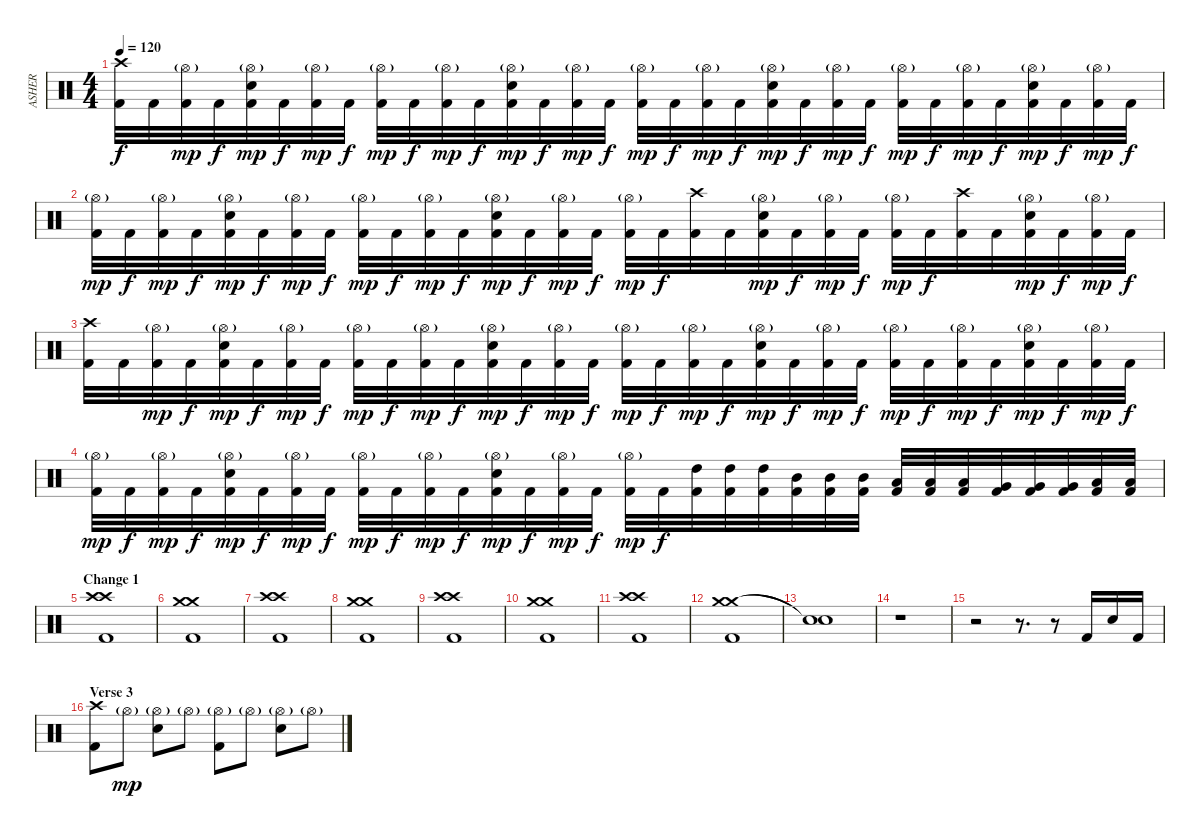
\track ("ASHER" "ASHER") {instrument percussion}
\staff {score}
\articulation defaults
\ts (4 4)
\tempo 120
\clef neutral
\ks c
("Crash high (hit)" "Kick (hit) 2").32{dy f} "Kick (hit) 2".32 ("Hi-Hat (open)"{g} "Kick (hit) 2").32{dy mp} "Kick (hit) 2".32{dy f} ("Hi-Hat (open)"{g} "Electric Snare (hit)" "Kick (hit) 2").32{dy mp} "Kick (hit) 2".32{dy f} ("Hi-Hat (open)"{g} "Kick (hit) 2").32{dy mp} "Kick (hit) 2".32{dy f} ("Hi-Hat (open)"{g} "Kick (hit) 2").32{dy mp} "Kick (hit) 2".32{dy f} ("Hi-Hat (open)"{g} "Kick (hit) 2").32{dy mp} "Kick (hit) 2".32{dy f} ("Hi-Hat (open)"{g} "Electric Snare (hit)" "Kick (hit) 2").32{dy mp} "Kick (hit) 2".32{dy f} ("Hi-Hat (open)"{g} "Kick (hit) 2").32{dy mp} "Kick (hit) 2".32{dy f} ("Hi-Hat (open)"{g} "Kick (hit) 2").32{dy mp} "Kick (hit) 2".32{dy f} ("Hi-Hat (open)"{g} "Kick (hit) 2").32{dy mp} "Kick (hit) 2".32{dy f} ("Hi-Hat (open)"{g} "Electric Snare (hit)" "Kick (hit) 2").32{dy mp} "Kick (hit) 2".32{dy f} ("Hi-Hat (open)"{g} "Kick (hit) 2").32{dy mp} "Kick (hit) 2".32{dy f} ("Hi-Hat (open)"{g} "Kick (hit) 2").32{dy mp} "Kick (hit) 2".32{dy f} ("Hi-Hat (open)"{g} "Kick (hit) 2").32{dy mp} "Kick (hit) 2".32{dy f} ("Hi-Hat (open)"{g} "Electric Snare (hit)" "Kick (hit) 2").32{dy mp} "Kick (hit) 2".32{dy f} ("Hi-Hat (open)"{g} "Kick (hit) 2").32{dy mp} "Kick (hit) 2".32{dy f} |
("Hi-Hat (open)"{g} "Kick (hit) 2").32{dy mp} "Kick (hit) 2".32{dy f} ("Hi-Hat (open)"{g} "Kick (hit) 2").32{dy mp} "Kick (hit) 2".32{dy f} ("Hi-Hat (open)"{g} "Electric Snare (hit)" "Kick (hit) 2").32{dy mp} "Kick (hit) 2".32{dy f} ("Hi-Hat (open)"{g} "Kick (hit) 2").32{dy mp} "Kick (hit) 2".32{dy f} ("Hi-Hat (open)"{g} "Kick (hit) 2").32{dy mp} "Kick (hit) 2".32{dy f} ("Hi-Hat (open)"{g} "Kick (hit) 2").32{dy mp} "Kick (hit) 2".32{dy f} ("Hi-Hat (open)"{g} "Electric Snare (hit)" "Kick (hit) 2").32{dy mp} "Kick (hit) 2".32{dy f} ("Hi-Hat (open)"{g} "Kick (hit) 2").32{dy mp} "Kick (hit) 2".32{dy f} ("Hi-Hat (open)"{g} "Kick (hit) 2").32{dy mp} "Kick (hit) 2".32{dy f} ("Crash high (hit)" "Kick (hit) 2").32 "Kick (hit) 2".32 ("Hi-Hat (open)"{g} "Electric Snare (hit)" "Kick (hit) 2").32{dy mp} "Kick (hit) 2".32{dy f} ("Hi-Hat (open)"{g} "Kick (hit) 2").32{dy mp} "Kick (hit) 2".32{dy f} ("Hi-Hat (open)"{g} "Kick (hit) 2").32{dy mp} "Kick (hit) 2".32{dy f} ("Crash high (hit)" "Kick (hit) 2").32 "Kick (hit) 2".32 ("Hi-Hat (open)"{g} "Electric Snare (hit)" "Kick (hit) 2").32{dy mp} "Kick (hit) 2".32{dy f} ("Hi-Hat (open)"{g} "Kick (hit) 2").32{dy mp} "Kick (hit) 2".32{dy f} |
("Crash high (hit)" "Kick (hit) 2").32 "Kick (hit) 2".32 ("Hi-Hat (open)"{g} "Kick (hit) 2").32{dy mp} "Kick (hit) 2".32{dy f} ("Hi-Hat (open)"{g} "Electric Snare (hit)" "Kick (hit) 2").32{dy mp} "Kick (hit) 2".32{dy f} ("Hi-Hat (open)"{g} "Kick (hit) 2").32{dy mp} "Kick (hit) 2".32{dy f} ("Hi-Hat (open)"{g} "Kick (hit) 2").32{dy mp} "Kick (hit) 2".32{dy f} ("Hi-Hat (open)"{g} "Kick (hit) 2").32{dy mp} "Kick (hit) 2".32{dy f} ("Hi-Hat (open)"{g} "Electric Snare (hit)" "Kick (hit) 2").32{dy mp} "Kick (hit) 2".32{dy f} ("Hi-Hat (open)"{g} "Kick (hit) 2").32{dy mp} "Kick (hit) 2".32{dy f} ("Hi-Hat (open)"{g} "Kick (hit) 2").32{dy mp} "Kick (hit) 2".32{dy f} ("Hi-Hat (open)"{g} "Kick (hit) 2").32{dy mp} "Kick (hit) 2".32{dy f} ("Hi-Hat (open)"{g} "Electric Snare (hit)" "Kick (hit) 2").32{dy mp} "Kick (hit) 2".32{dy f} ("Hi-Hat (open)"{g} "Kick (hit) 2").32{dy mp} "Kick (hit) 2".32{dy f} ("Hi-Hat (open)"{g} "Kick (hit) 2").32{dy mp} "Kick (hit) 2".32{dy f} ("Hi-Hat (open)"{g} "Kick (hit) 2").32{dy mp} "Kick (hit) 2".32{dy f} ("Hi-Hat (open)"{g} "Electric Snare (hit)" "Kick (hit) 2").32{dy mp} "Kick (hit) 2".32{dy f} ("Hi-Hat (open)"{g} "Kick (hit) 2").32{dy mp} "Kick (hit) 2".32{dy f} |
("Hi-Hat (open)"{g} "Kick (hit) 2").32{dy mp} "Kick (hit) 2".32{dy f} ("Hi-Hat (open)"{g} "Kick (hit) 2").32{dy mp} "Kick (hit) 2".32{dy f} ("Hi-Hat (open)"{g} "Electric Snare (hit)" "Kick (hit) 2").32{dy mp} "Kick (hit) 2".32{dy f} ("Hi-Hat (open)"{g} "Kick (hit) 2").32{dy mp} "Kick (hit) 2".32{dy f} ("Hi-Hat (open)"{g} "Kick (hit) 2").32{dy mp} "Kick (hit) 2".32{dy f} ("Hi-Hat (open)"{g} "Kick (hit) 2").32{dy mp} "Kick (hit) 2".32{dy f} ("Hi-Hat (open)"{g} "Electric Snare (hit)" "Kick (hit) 2").32{dy mp} "Kick (hit) 2".32{dy f} ("Hi-Hat (open)"{g} "Kick (hit) 2").32{dy mp} "Kick (hit) 2".32{dy f} ("Hi-Hat (open)"{g} "Kick (hit) 2").32{dy mp} "Kick (hit) 2".32{dy f} ("High Tom (hit)" "Kick (hit) 2").32 ("High Tom (hit)" "Kick (hit) 2").32 ("High Tom (hit)" "Kick (hit) 2").32 ("Mid Tom (hit)" "Kick (hit) 2").32 ("Mid Tom (hit)" "Kick (hit) 2").32 ("Mid Tom (hit)" "Kick (hit) 2").32 ("Low Tom (hit)" "Kick (hit) 2").32 ("Low Tom (hit)" "Kick (hit) 2").32 ("Low Tom (hit)" "Kick (hit) 2").32 ("Very Low Tom (hit)" "Kick (hit) 2").32 ("Very Low Tom (hit)" "Kick (hit) 2").32 ("Very Low Tom (hit)" "Kick (hit) 2").32 ("Low Floor Tom (hit)" "Kick (hit) 2").32 ("Low Floor Tom (hit)" "Kick (hit) 2").32 |
\section ("" "Change 1")
("Crash high (hit)" "Crash high (hit)" "Kick (hit) 2").1 |
("Crash medium (hit)" "Crash medium (hit)" "Kick (hit) 2").1 |
("Crash high (hit)" "Crash high (hit)" "Kick (hit) 2").1 |
("Crash medium (hit)" "Crash medium (hit)" "Kick (hit) 2").1 |
("Crash high (hit)" "Crash high (hit)" "Kick (hit) 2").1 |
("Crash medium (hit)" "Crash medium (hit)" "Kick (hit) 2").1 |
("Crash high (hit)" "Crash high (hit)" "Kick (hit) 2").1 |
("Crash medium (hit)" "Crash medium (hit)" "Kick (hit) 2").1 |
("Snare (hit)"{t} "Snare (hit)"{t}).1 |
r.1 |
r.2 r.8{d} r.8 "Kick (hit) 2".16 "Electric Snare (hit)".16 "Kick (hit) 2".16 |
\section ("" "Verse 3")
("Crash high (hit)" "Kick (hit) 2").8 "Hi-Hat (open)"{g}.8{dy mp} ("Hi-Hat (open)"{g} "Electric Snare (hit)").8 "Hi-Hat (open)"{g}.8 ("Hi-Hat (open)"{g} "Kick (hit) 2").8 "Hi-Hat (open)"{g}.8 ("Hi-Hat (open)"{g} "Electric Snare (hit)").8 "Hi-Hat (open)"{g}.8
